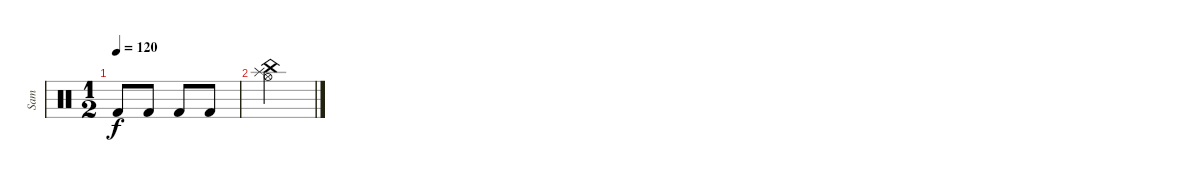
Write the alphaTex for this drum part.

\track ("Sam" "Sam") {instrument percussion}
\staff {score}
\articulation defaults
\ts (1 2)
\tempo 120
\clef neutral
\ks c "Kick (hit) 2".8{dy f} "Kick (hit) 2".8 "Kick (hit) 2".8 "Kick (hit) 2".8
|
("Hi-Hat (open)" "Splash (hit)" "China (hit)").2
